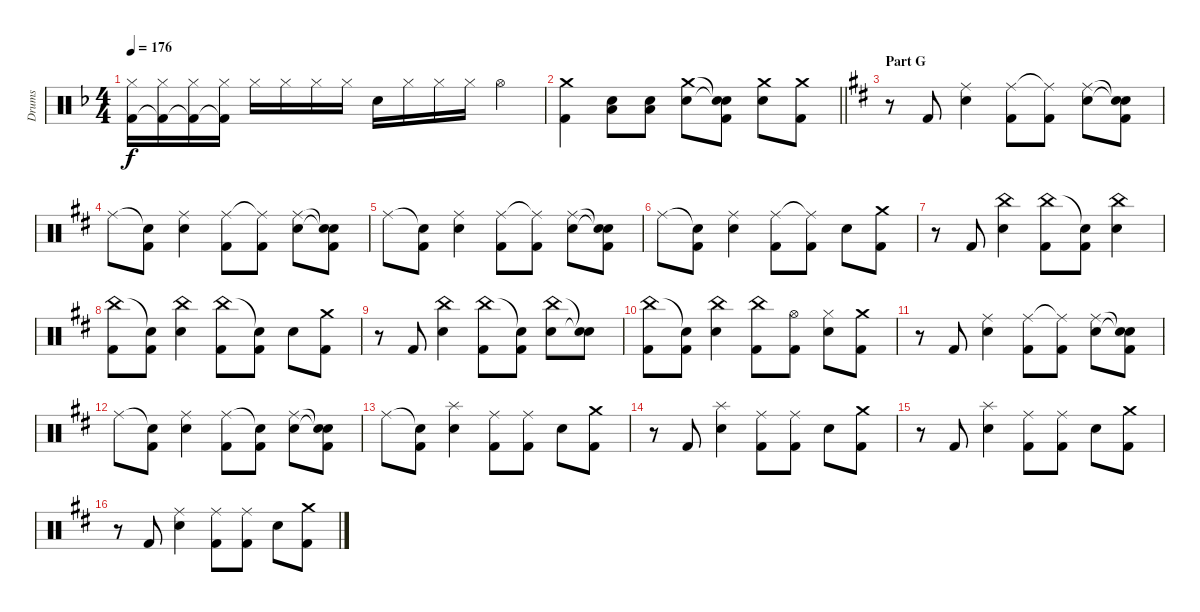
\track ("Drums" "Drums") {instrument percussion}
\staff {score}
\articulation defaults
\ts (4 4)
\tempo 176
\clef neutral
\ks f
("Hi-Hat (closed)" "Kick (hit) 2").16{dy f} ("Hi-Hat (closed)" "Kick (hit) 2"{t}).16 ("Hi-Hat (closed)" "Kick (hit) 2"{t}).16 ("Hi-Hat (closed)" "Kick (hit) 2"{t}).16 "Hi-Hat (closed)".16 "Hi-Hat (closed)".16 "Hi-Hat (closed)".16 "Hi-Hat (closed)".16 "Electric Snare (hit)".16 "Hi-Hat (closed)".16 "Hi-Hat (closed)".16 "Hi-Hat (closed)".16 "Hi-Hat (open)".4 |
\barLineRight lightlight
("Crash medium (hit)" "Kick (hit) 2").4 ("Electric Snare (hit)" "Low Floor Tom (hit)").8 ("Electric Snare (hit)" "Low Floor Tom (hit)").8 ("Crash medium (hit)" "Electric Snare (hit)").8 ("Snare (hit)"{t} "Snare (hit)"{t} "Kick (hit) 2").8 ("Crash medium (hit)" "Electric Snare (hit)").8 ("Crash medium (hit)" "Kick (hit) 2").8 |
\section ("" "Part G")
\ks d
r.8 "Kick (hit) 2".8 ("Ride (middle)" "Electric Snare (hit)").4 ("Ride (middle)" "Kick (hit) 2").8 ("Ride (middle)"{t} "Kick (hit) 2").8 ("Ride (middle)" "Electric Snare (hit)").8 ("Snare (hit)"{t} "Snare (hit)"{t} "Kick (hit) 2").8 |
"Ride (middle)".8 ("Snare (hit)"{t} "Kick (hit) 2").8 ("Ride (middle)" "Electric Snare (hit)").4 ("Ride (middle)" "Kick (hit) 2").8 ("Ride (middle)"{t} "Kick (hit) 2").8 ("Ride (middle)" "Electric Snare (hit)").8 ("Snare (hit)"{t} "Snare (hit)"{t} "Kick (hit) 2").8 |
"Ride (middle)".8 ("Snare (hit)"{t} "Kick (hit) 2").8 ("Ride (middle)" "Electric Snare (hit)").4 ("Ride (middle)" "Kick (hit) 2").8 ("Ride (middle)"{t} "Kick (hit) 2").8 ("Ride (middle)" "Electric Snare (hit)").8 ("Snare (hit)"{t} "Snare (hit)"{t} "Kick (hit) 2").8 |
"Ride (middle)".8 ("Snare (hit)"{t} "Kick (hit) 2").8 ("Ride (middle)" "Electric Snare (hit)").4 ("Ride (middle)" "Kick (hit) 2").8 ("Ride (middle)"{t} "Kick (hit) 2").8 "Electric Snare (hit)".8 ("Crash medium (hit)" "Kick (hit) 2").8 |
r.8 "Kick (hit) 2".8 ("China (hit)" "Electric Snare (hit)").4 ("China (hit)" "Kick (hit) 2").8 ("Snare (hit)"{t} "Kick (hit) 2").8 ("China (hit)" "Electric Snare (hit)").4 |
("China (hit)" "Kick (hit) 2").8 ("Snare (hit)"{t} "Kick (hit) 2").8 ("China (hit)" "Electric Snare (hit)").4 ("China (hit)" "Kick (hit) 2").8 ("Snare (hit)"{t} "Kick (hit) 2").8 "Electric Snare (hit)".8 ("Crash medium (hit)" "Kick (hit) 2").8 |
r.8 "Kick (hit) 2".8 ("China (hit)" "Electric Snare (hit)").4 ("China (hit)" "Kick (hit) 2").8 ("Snare (hit)"{t} "Kick (hit) 2").8 ("China (hit)" "Electric Snare (hit)").8 ("Snare (hit)"{t} "Snare (hit)"{t}).8 |
("China (hit)" "Kick (hit) 2").8 ("Snare (hit)"{t} "Kick (hit) 2").8 ("China (hit)" "Electric Snare (hit)").4 ("China (hit)" "Kick (hit) 2").8 ("Hi-Hat (open)" "Kick (hit) 2").8 ("Hi-Hat (closed)" "Electric Snare (hit)").8 ("Crash medium (hit)" "Kick (hit) 2").8 |
r.8 "Kick (hit) 2".8 ("Ride (middle)" "Electric Snare (hit)").4 ("Ride (middle)" "Kick (hit) 2").8 ("Ride (middle)"{t} "Kick (hit) 2").8 ("Ride (middle)" "Electric Snare (hit)").8 ("Snare (hit)"{t} "Snare (hit)"{t} "Kick (hit) 2").8 |
"Ride (middle)".8 ("Snare (hit)"{t} "Kick (hit) 2").8 ("Ride (middle)" "Electric Snare (hit)").4 ("Ride (middle)" "Kick (hit) 2").8 ("Snare (hit)"{t} "Kick (hit) 2").8 ("Ride (middle)" "Electric Snare (hit)").8 ("Snare (hit)"{t} "Snare (hit)"{t} "Kick (hit) 2").8 |
"Ride (middle)".8 ("Snare (hit)"{t} "Kick (hit) 2").8 ("Splash (hit)" "Electric Snare (hit)").4 ("Ride (middle)" "Kick (hit) 2").8 ("Ride (middle)" "Kick (hit) 2").8 "Electric Snare (hit)".8 ("Crash medium (hit)" "Kick (hit) 2").8 |
r.8 "Kick (hit) 2".8 ("Splash (hit)" "Electric Snare (hit)").4 ("Ride (middle)" "Kick (hit) 2").8 ("Ride (middle)" "Kick (hit) 2").8 "Electric Snare (hit)".8 ("Crash medium (hit)" "Kick (hit) 2").8 |
r.8 "Kick (hit) 2".8 ("Splash (hit)" "Electric Snare (hit)").4 ("Ride (middle)" "Kick (hit) 2").8 ("Ride (middle)" "Kick (hit) 2").8 "Electric Snare (hit)".8 ("Crash medium (hit)" "Kick (hit) 2").8 |
r.8 "Kick (hit) 2".8 ("Ride (middle)" "Electric Snare (hit)").4 ("Ride (middle)" "Kick (hit) 2").8 ("Ride (middle)" "Kick (hit) 2").8 "Electric Snare (hit)".8 ("Crash medium (hit)" "Kick (hit) 2").8
